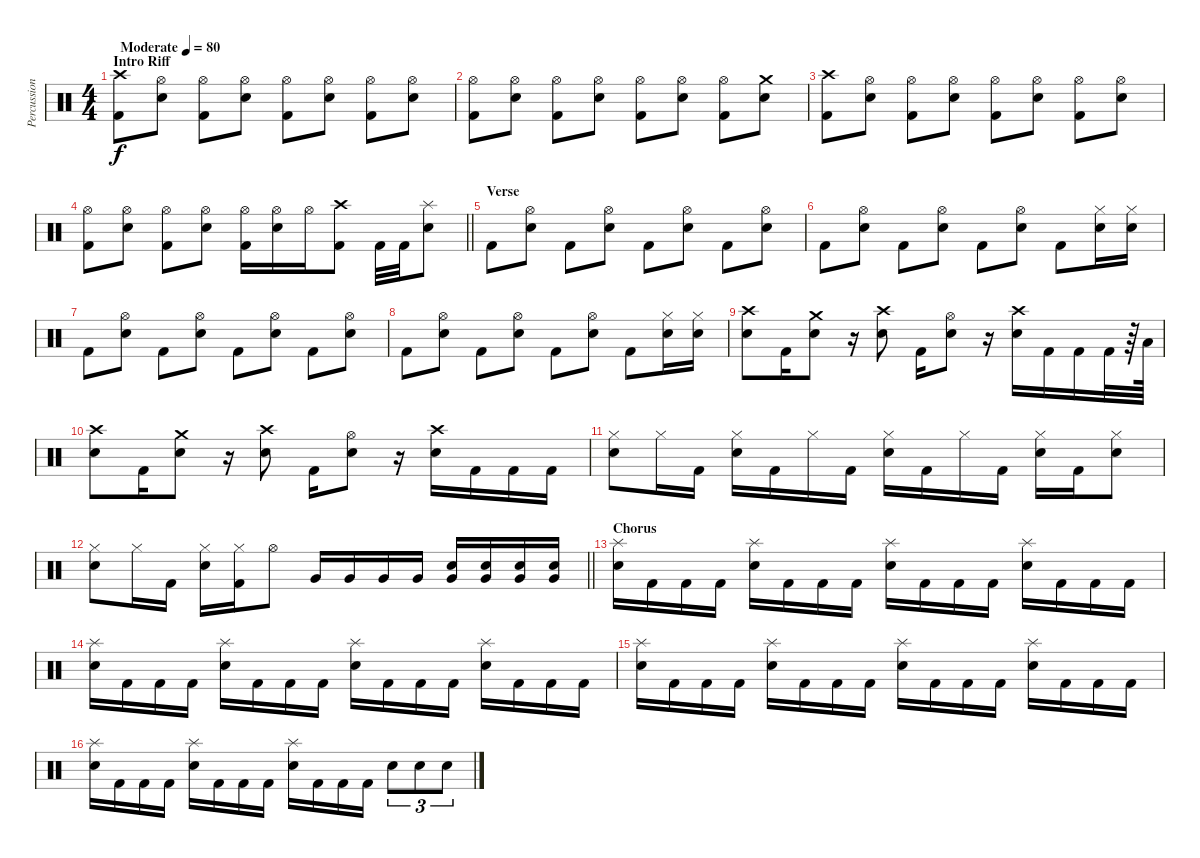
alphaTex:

\track ("Percussion" "Percussion") {instrument percussion}
\staff {score}
\articulation defaults
\ts (4 4)
\section ("" "Intro Riff")
\tempo (80 "Moderate")
\clef neutral
\ks c
("Crash high (hit)" "Kick (hit) 2").8{dy f} ("Hi-Hat (open)" "Snare (hit) 2").8 ("Hi-Hat (open)" "Kick (hit) 2").8 ("Hi-Hat (open)" "Snare (hit) 2").8 ("Hi-Hat (open)" "Kick (hit) 2").8 ("Hi-Hat (open)" "Snare (hit) 2").8 ("Hi-Hat (open)" "Kick (hit) 2").8 ("Hi-Hat (open)" "Snare (hit) 2").8 |
("Hi-Hat (open)" "Kick (hit) 2").8 ("Hi-Hat (open)" "Snare (hit) 2").8 ("Hi-Hat (open)" "Kick (hit) 2").8 ("Hi-Hat (open)" "Snare (hit) 2").8 ("Hi-Hat (open)" "Kick (hit) 2").8 ("Hi-Hat (open)" "Snare (hit) 2").8 ("Hi-Hat (open)" "Kick (hit) 2").8 ("Crash medium (hit)" "Snare (hit) 2").8 |
("Crash high (hit)" "Kick (hit) 2").8 ("Hi-Hat (open)" "Snare (hit) 2").8 ("Hi-Hat (open)" "Kick (hit) 2").8 ("Hi-Hat (open)" "Snare (hit) 2").8 ("Hi-Hat (open)" "Kick (hit) 2").8 ("Hi-Hat (open)" "Snare (hit) 2").8 ("Hi-Hat (open)" "Kick (hit) 2").8 ("Hi-Hat (open)" "Snare (hit) 2").8 |
\barLineRight lightlight
("Hi-Hat (open)" "Kick (hit) 2").8 ("Hi-Hat (open)" "Snare (hit) 2").8 ("Hi-Hat (open)" "Kick (hit) 2").8 ("Hi-Hat (open)" "Snare (hit) 2").8 ("Hi-Hat (open)" "Kick (hit) 2").16 ("Hi-Hat (open)" "Snare (hit) 2").16 "Hi-Hat (open)".16 ("Crash high (hit)" "Kick (hit) 2").8 "Kick (hit) 2".32 "Kick (hit) 2".32 ("Splash (hit)" "Snare (hit) 2").8 |
\section ("" "Verse")
"Kick (hit) 2".8 ("Hi-Hat (open)" "Snare (hit) 2").8 "Kick (hit) 2".8 ("Hi-Hat (open)" "Snare (hit) 2").8 "Kick (hit) 2".8 ("Hi-Hat (open)" "Snare (hit) 2").8 "Kick (hit) 2".8 ("Hi-Hat (open)" "Snare (hit) 2").8 |
"Kick (hit) 2".8 ("Hi-Hat (open)" "Snare (hit) 2").8 "Kick (hit) 2".8 ("Hi-Hat (open)" "Snare (hit) 2").8 "Kick (hit) 2".8 ("Hi-Hat (open)" "Snare (hit) 2").8 "Kick (hit) 2".8 ("Hi-Hat (closed)" "Snare (hit) 2").16 ("Hi-Hat (closed)" "Snare (hit) 2").16 |
"Kick (hit) 2".8 ("Hi-Hat (open)" "Snare (hit) 2").8 "Kick (hit) 2".8 ("Hi-Hat (open)" "Snare (hit) 2").8 "Kick (hit) 2".8 ("Hi-Hat (open)" "Snare (hit) 2").8 "Kick (hit) 2".8 ("Hi-Hat (open)" "Snare (hit) 2").8 |
"Kick (hit) 2".8 ("Hi-Hat (open)" "Snare (hit) 2").8 "Kick (hit) 2".8 ("Hi-Hat (open)" "Snare (hit) 2").8 "Kick (hit) 2".8 ("Hi-Hat (open)" "Snare (hit) 2").8 "Kick (hit) 2".8 ("Hi-Hat (closed)" "Snare (hit) 2").16 ("Hi-Hat (closed)" "Snare (hit) 2").16 |
("Crash high (hit)" "Snare (hit) 2").8 "Kick (hit) 2".16 ("Crash medium (hit)" "Snare (hit) 2").8 r.16 ("Crash high (hit)" "Snare (hit) 2").8 "Kick (hit) 2".16 ("Hi-Hat (open)" "Snare (hit) 2").8 r.16 ("Crash high (hit)" "Snare (hit) 2").16 "Kick (hit) 2".16 "Kick (hit) 2".16 "Kick (hit) 2".32 r.64 "Low Floor Tom (hit)".64 |
("Crash high (hit)" "Snare (hit) 2").8 "Kick (hit) 2".16 ("Crash medium (hit)" "Snare (hit) 2").8 r.16 ("Crash high (hit)" "Snare (hit) 2").8 "Kick (hit) 2".16 ("Hi-Hat (open)" "Snare (hit) 2").8 r.16 ("Crash high (hit)" "Snare (hit) 2").16 "Kick (hit) 2".16 "Kick (hit) 2".16 "Kick (hit) 2".16 |
("Hi-Hat (closed)" "Snare (hit) 2").8 "Hi-Hat (closed)".16 "Kick (hit) 2".16 ("Hi-Hat (closed)" "Snare (hit) 2").16 "Kick (hit) 2".16 "Hi-Hat (closed)".16 "Kick (hit) 2".16 ("Hi-Hat (closed)" "Snare (hit) 2").16 "Kick (hit) 2".16 "Hi-Hat (closed)".16 "Kick (hit) 2".16 ("Hi-Hat (closed)" "Snare (hit) 2").16 "Kick (hit) 2".16 ("Hi-Hat (closed)" "Snare (hit) 2").8 |
\barLineRight lightlight
("Hi-Hat (closed)" "Snare (hit) 2").8 "Hi-Hat (closed)".16 "Kick (hit) 2".16 ("Hi-Hat (closed)" "Snare (hit) 2").16 ("Hi-Hat (closed)" "Kick (hit) 2").16 "Hi-Hat (open)".8 "Very Low Tom (hit)".16 "Very Low Tom (hit)".16 "Very Low Tom (hit)".16 "Very Low Tom (hit)".16 ("Snare (hit) 2" "Very Low Tom (hit)").16 ("Snare (hit) 2" "Very Low Tom (hit)").16 ("Snare (hit) 2" "Very Low Tom (hit)").16 ("Snare (hit) 2" "Very Low Tom (hit)").16 |
\section ("" "Chorus")
("Splash (hit)" "Snare (hit) 2").16 "Kick (hit) 2".16 "Kick (hit) 2".16 "Kick (hit) 2".16 ("Splash (hit)" "Snare (hit) 2").16 "Kick (hit) 2".16 "Kick (hit) 2".16 "Kick (hit) 2".16 ("Splash (hit)" "Snare (hit) 2").16 "Kick (hit) 2".16 "Kick (hit) 2".16 "Kick (hit) 2".16 ("Splash (hit)" "Snare (hit) 2").16 "Kick (hit) 2".16 "Kick (hit) 2".16 "Kick (hit) 2".16 |
("Splash (hit)" "Snare (hit) 2").16 "Kick (hit) 2".16 "Kick (hit) 2".16 "Kick (hit) 2".16 ("Splash (hit)" "Snare (hit) 2").16 "Kick (hit) 2".16 "Kick (hit) 2".16 "Kick (hit) 2".16 ("Splash (hit)" "Snare (hit) 2").16 "Kick (hit) 2".16 "Kick (hit) 2".16 "Kick (hit) 2".16 ("Splash (hit)" "Snare (hit) 2").16 "Kick (hit) 2".16 "Kick (hit) 2".16 "Kick (hit) 2".16 |
("Splash (hit)" "Snare (hit) 2").16 "Kick (hit) 2".16 "Kick (hit) 2".16 "Kick (hit) 2".16 ("Splash (hit)" "Snare (hit) 2").16 "Kick (hit) 2".16 "Kick (hit) 2".16 "Kick (hit) 2".16 ("Splash (hit)" "Snare (hit) 2").16 "Kick (hit) 2".16 "Kick (hit) 2".16 "Kick (hit) 2".16 ("Splash (hit)" "Snare (hit) 2").16 "Kick (hit) 2".16 "Kick (hit) 2".16 "Kick (hit) 2".16 |
("Splash (hit)" "Snare (hit) 2").16 "Kick (hit) 2".16 "Kick (hit) 2".16 "Kick (hit) 2".16 ("Splash (hit)" "Snare (hit) 2").16 "Kick (hit) 2".16 "Kick (hit) 2".16 "Kick (hit) 2".16 ("Splash (hit)" "Snare (hit) 2").16 "Kick (hit) 2".16 "Kick (hit) 2".16 "Kick (hit) 2".16 "Snare (hit) 2".8{tu (3 2)} "Snare (hit) 2".8{tu (3 2)} "Snare (hit) 2".8{tu (3 2)}
